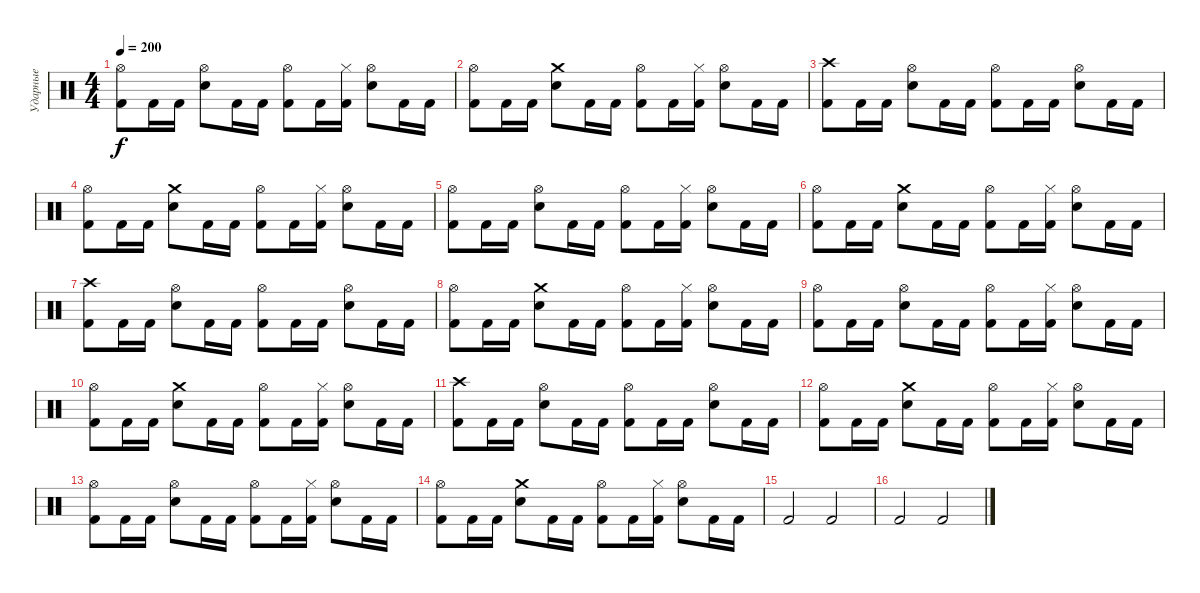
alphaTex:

\track ("Ударные" "Ударные") {instrument percussion}
\staff {score}
\articulation defaults
\ts (4 4)
\tempo 200
\clef neutral
\ks c
("Hi-Hat (open)" "Kick (hit) 2").8{dy f} "Kick (hit) 2".16 "Kick (hit) 2".16 ("Hi-Hat (open)" "Electric Snare (hit)").8 "Kick (hit) 2".16 "Kick (hit) 2".16 ("Hi-Hat (open)" "Kick (hit) 2").8 "Kick (hit) 2".16 ("Hi-Hat (closed)" "Kick (hit) 2").16 ("Hi-Hat (open)" "Electric Snare (hit)").8 "Kick (hit) 2".16 "Kick (hit) 2".16 |
("Hi-Hat (open)" "Kick (hit) 2").8 "Kick (hit) 2".16 "Kick (hit) 2".16 ("Crash medium (hit)" "Electric Snare (hit)").8 "Kick (hit) 2".16 "Kick (hit) 2".16 ("Hi-Hat (open)" "Kick (hit) 2").8 "Kick (hit) 2".16 ("Hi-Hat (closed)" "Kick (hit) 2").16 ("Hi-Hat (open)" "Electric Snare (hit)").8 "Kick (hit) 2".16 "Kick (hit) 2".16 |
("Crash high (hit)" "Kick (hit) 2").8 "Kick (hit) 2".16 "Kick (hit) 2".16 ("Hi-Hat (open)" "Electric Snare (hit)").8 "Kick (hit) 2".16 "Kick (hit) 2".16 ("Hi-Hat (open)" "Kick (hit) 2").8 "Kick (hit) 2".16 "Kick (hit) 2".16 ("Hi-Hat (open)" "Electric Snare (hit)").8 "Kick (hit) 2".16 "Kick (hit) 2".16 |
("Hi-Hat (open)" "Kick (hit) 2").8 "Kick (hit) 2".16 "Kick (hit) 2".16 ("Crash medium (hit)" "Electric Snare (hit)").8 "Kick (hit) 2".16 "Kick (hit) 2".16 ("Hi-Hat (open)" "Kick (hit) 2").8 "Kick (hit) 2".16 ("Hi-Hat (closed)" "Kick (hit) 2").16 ("Hi-Hat (open)" "Electric Snare (hit)").8 "Kick (hit) 2".16 "Kick (hit) 2".16 |
("Hi-Hat (open)" "Kick (hit) 2").8 "Kick (hit) 2".16 "Kick (hit) 2".16 ("Hi-Hat (open)" "Electric Snare (hit)").8 "Kick (hit) 2".16 "Kick (hit) 2".16 ("Hi-Hat (open)" "Kick (hit) 2").8 "Kick (hit) 2".16 ("Hi-Hat (closed)" "Kick (hit) 2").16 ("Hi-Hat (open)" "Electric Snare (hit)").8 "Kick (hit) 2".16 "Kick (hit) 2".16 |
("Hi-Hat (open)" "Kick (hit) 2").8 "Kick (hit) 2".16 "Kick (hit) 2".16 ("Crash medium (hit)" "Electric Snare (hit)").8 "Kick (hit) 2".16 "Kick (hit) 2".16 ("Hi-Hat (open)" "Kick (hit) 2").8 "Kick (hit) 2".16 ("Hi-Hat (closed)" "Kick (hit) 2").16 ("Hi-Hat (open)" "Electric Snare (hit)").8 "Kick (hit) 2".16 "Kick (hit) 2".16 |
("Crash high (hit)" "Kick (hit) 2").8 "Kick (hit) 2".16 "Kick (hit) 2".16 ("Hi-Hat (open)" "Electric Snare (hit)").8 "Kick (hit) 2".16 "Kick (hit) 2".16 ("Hi-Hat (open)" "Kick (hit) 2").8 "Kick (hit) 2".16 "Kick (hit) 2".16 ("Hi-Hat (open)" "Electric Snare (hit)").8 "Kick (hit) 2".16 "Kick (hit) 2".16 |
("Hi-Hat (open)" "Kick (hit) 2").8 "Kick (hit) 2".16 "Kick (hit) 2".16 ("Crash medium (hit)" "Electric Snare (hit)").8 "Kick (hit) 2".16 "Kick (hit) 2".16 ("Hi-Hat (open)" "Kick (hit) 2").8 "Kick (hit) 2".16 ("Hi-Hat (closed)" "Kick (hit) 2").16 ("Hi-Hat (open)" "Electric Snare (hit)").8 "Kick (hit) 2".16 "Kick (hit) 2".16 |
("Hi-Hat (open)" "Kick (hit) 2").8 "Kick (hit) 2".16 "Kick (hit) 2".16 ("Hi-Hat (open)" "Electric Snare (hit)").8 "Kick (hit) 2".16 "Kick (hit) 2".16 ("Hi-Hat (open)" "Kick (hit) 2").8 "Kick (hit) 2".16 ("Hi-Hat (closed)" "Kick (hit) 2").16 ("Hi-Hat (open)" "Electric Snare (hit)").8 "Kick (hit) 2".16 "Kick (hit) 2".16 |
("Hi-Hat (open)" "Kick (hit) 2").8 "Kick (hit) 2".16 "Kick (hit) 2".16 ("Crash medium (hit)" "Electric Snare (hit)").8 "Kick (hit) 2".16 "Kick (hit) 2".16 ("Hi-Hat (open)" "Kick (hit) 2").8 "Kick (hit) 2".16 ("Hi-Hat (closed)" "Kick (hit) 2").16 ("Hi-Hat (open)" "Electric Snare (hit)").8 "Kick (hit) 2".16 "Kick (hit) 2".16 |
("Crash high (hit)" "Kick (hit) 2").8 "Kick (hit) 2".16 "Kick (hit) 2".16 ("Hi-Hat (open)" "Electric Snare (hit)").8 "Kick (hit) 2".16 "Kick (hit) 2".16 ("Hi-Hat (open)" "Kick (hit) 2").8 "Kick (hit) 2".16 "Kick (hit) 2".16 ("Hi-Hat (open)" "Electric Snare (hit)").8 "Kick (hit) 2".16 "Kick (hit) 2".16 |
("Hi-Hat (open)" "Kick (hit) 2").8 "Kick (hit) 2".16 "Kick (hit) 2".16 ("Crash medium (hit)" "Electric Snare (hit)").8 "Kick (hit) 2".16 "Kick (hit) 2".16 ("Hi-Hat (open)" "Kick (hit) 2").8 "Kick (hit) 2".16 ("Hi-Hat (closed)" "Kick (hit) 2").16 ("Hi-Hat (open)" "Electric Snare (hit)").8 "Kick (hit) 2".16 "Kick (hit) 2".16 |
("Hi-Hat (open)" "Kick (hit) 2").8 "Kick (hit) 2".16 "Kick (hit) 2".16 ("Hi-Hat (open)" "Electric Snare (hit)").8 "Kick (hit) 2".16 "Kick (hit) 2".16 ("Hi-Hat (open)" "Kick (hit) 2").8 "Kick (hit) 2".16 ("Hi-Hat (closed)" "Kick (hit) 2").16 ("Hi-Hat (open)" "Electric Snare (hit)").8 "Kick (hit) 2".16 "Kick (hit) 2".16 |
("Hi-Hat (open)" "Kick (hit) 2").8 "Kick (hit) 2".16 "Kick (hit) 2".16 ("Crash medium (hit)" "Electric Snare (hit)").8 "Kick (hit) 2".16 "Kick (hit) 2".16 ("Hi-Hat (open)" "Kick (hit) 2").8 "Kick (hit) 2".16 ("Hi-Hat (closed)" "Kick (hit) 2").16 ("Hi-Hat (open)" "Electric Snare (hit)").8 "Kick (hit) 2".16 "Kick (hit) 2".16 |
"Kick (hit) 2".2 "Kick (hit) 2".2 |
"Kick (hit) 2".2 "Kick (hit) 2".2
